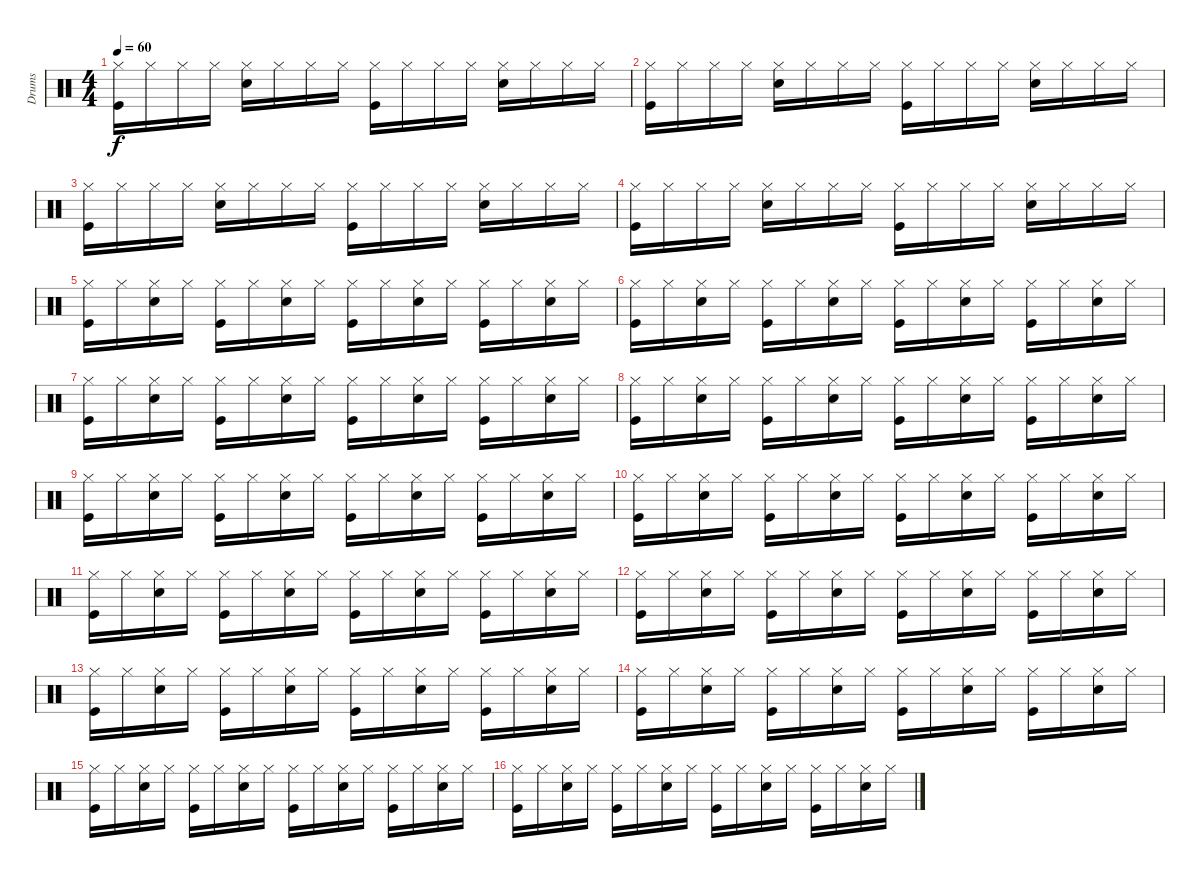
\track ("Drums" "Drums") {instrument percussion}
\staff {score}
\articulation defaults
\ts (4 4)
\tempo 60
\clef neutral
\ks c
("Kick (hit)" "Hi-Hat (closed)").16{dy f} "Hi-Hat (closed)".16 "Hi-Hat (closed)".16 "Hi-Hat (closed)".16 ("Electric Snare (hit)" "Hi-Hat (closed)").16 "Hi-Hat (closed)".16 "Hi-Hat (closed)".16 "Hi-Hat (closed)".16 ("Kick (hit)" "Hi-Hat (closed)").16 "Hi-Hat (closed)".16 "Hi-Hat (closed)".16 "Hi-Hat (closed)".16 ("Electric Snare (hit)" "Hi-Hat (closed)").16 "Hi-Hat (closed)".16 "Hi-Hat (closed)".16 "Hi-Hat (closed)".16 |
("Kick (hit)" "Hi-Hat (closed)").16 "Hi-Hat (closed)".16 "Hi-Hat (closed)".16 "Hi-Hat (closed)".16 ("Electric Snare (hit)" "Hi-Hat (closed)").16 "Hi-Hat (closed)".16 "Hi-Hat (closed)".16 "Hi-Hat (closed)".16 ("Kick (hit)" "Hi-Hat (closed)").16 "Hi-Hat (closed)".16 "Hi-Hat (closed)".16 "Hi-Hat (closed)".16 ("Electric Snare (hit)" "Hi-Hat (closed)").16 "Hi-Hat (closed)".16 "Hi-Hat (closed)".16 "Hi-Hat (closed)".16 |
("Kick (hit)" "Hi-Hat (closed)").16 "Hi-Hat (closed)".16 "Hi-Hat (closed)".16 "Hi-Hat (closed)".16 ("Electric Snare (hit)" "Hi-Hat (closed)").16 "Hi-Hat (closed)".16 "Hi-Hat (closed)".16 "Hi-Hat (closed)".16 ("Kick (hit)" "Hi-Hat (closed)").16 "Hi-Hat (closed)".16 "Hi-Hat (closed)".16 "Hi-Hat (closed)".16 ("Electric Snare (hit)" "Hi-Hat (closed)").16 "Hi-Hat (closed)".16 "Hi-Hat (closed)".16 "Hi-Hat (closed)".16 |
("Kick (hit)" "Hi-Hat (closed)").16 "Hi-Hat (closed)".16 "Hi-Hat (closed)".16 "Hi-Hat (closed)".16 ("Electric Snare (hit)" "Hi-Hat (closed)").16 "Hi-Hat (closed)".16 "Hi-Hat (closed)".16 "Hi-Hat (closed)".16 ("Kick (hit)" "Hi-Hat (closed)").16 "Hi-Hat (closed)".16 "Hi-Hat (closed)".16 "Hi-Hat (closed)".16 ("Electric Snare (hit)" "Hi-Hat (closed)").16 "Hi-Hat (closed)".16 "Hi-Hat (closed)".16 "Hi-Hat (closed)".16 |
("Kick (hit)" "Hi-Hat (closed)").16 "Hi-Hat (closed)".16 ("Electric Snare (hit)" "Hi-Hat (closed)").16 "Hi-Hat (closed)".16 ("Kick (hit)" "Hi-Hat (closed)").16 "Hi-Hat (closed)".16 ("Electric Snare (hit)" "Hi-Hat (closed)").16 "Hi-Hat (closed)".16 ("Kick (hit)" "Hi-Hat (closed)").16 "Hi-Hat (closed)".16 ("Electric Snare (hit)" "Hi-Hat (closed)").16 "Hi-Hat (closed)".16 ("Kick (hit)" "Hi-Hat (closed)").16 "Hi-Hat (closed)".16 ("Electric Snare (hit)" "Hi-Hat (closed)").16 "Hi-Hat (closed)".16 |
("Kick (hit)" "Hi-Hat (closed)").16 "Hi-Hat (closed)".16 ("Electric Snare (hit)" "Hi-Hat (closed)").16 "Hi-Hat (closed)".16 ("Kick (hit)" "Hi-Hat (closed)").16 "Hi-Hat (closed)".16 ("Electric Snare (hit)" "Hi-Hat (closed)").16 "Hi-Hat (closed)".16 ("Kick (hit)" "Hi-Hat (closed)").16 "Hi-Hat (closed)".16 ("Electric Snare (hit)" "Hi-Hat (closed)").16 "Hi-Hat (closed)".16 ("Kick (hit)" "Hi-Hat (closed)").16 "Hi-Hat (closed)".16 ("Electric Snare (hit)" "Hi-Hat (closed)").16 "Hi-Hat (closed)".16 |
("Kick (hit)" "Hi-Hat (closed)").16 "Hi-Hat (closed)".16 ("Electric Snare (hit)" "Hi-Hat (closed)").16 "Hi-Hat (closed)".16 ("Kick (hit)" "Hi-Hat (closed)").16 "Hi-Hat (closed)".16 ("Electric Snare (hit)" "Hi-Hat (closed)").16 "Hi-Hat (closed)".16 ("Kick (hit)" "Hi-Hat (closed)").16 "Hi-Hat (closed)".16 ("Electric Snare (hit)" "Hi-Hat (closed)").16 "Hi-Hat (closed)".16 ("Kick (hit)" "Hi-Hat (closed)").16 "Hi-Hat (closed)".16 ("Electric Snare (hit)" "Hi-Hat (closed)").16 "Hi-Hat (closed)".16 |
("Kick (hit)" "Hi-Hat (closed)").16 "Hi-Hat (closed)".16 ("Electric Snare (hit)" "Hi-Hat (closed)").16 "Hi-Hat (closed)".16 ("Kick (hit)" "Hi-Hat (closed)").16 "Hi-Hat (closed)".16 ("Electric Snare (hit)" "Hi-Hat (closed)").16 "Hi-Hat (closed)".16 ("Kick (hit)" "Hi-Hat (closed)").16 "Hi-Hat (closed)".16 ("Electric Snare (hit)" "Hi-Hat (closed)").16 "Hi-Hat (closed)".16 ("Kick (hit)" "Hi-Hat (closed)").16 "Hi-Hat (closed)".16 ("Electric Snare (hit)" "Hi-Hat (closed)").16 "Hi-Hat (closed)".16 |
("Kick (hit)" "Hi-Hat (closed)").16 "Hi-Hat (closed)".16 ("Electric Snare (hit)" "Hi-Hat (closed)").16 "Hi-Hat (closed)".16 ("Kick (hit)" "Hi-Hat (closed)").16 "Hi-Hat (closed)".16 ("Electric Snare (hit)" "Hi-Hat (closed)").16 "Hi-Hat (closed)".16 ("Kick (hit)" "Hi-Hat (closed)").16 "Hi-Hat (closed)".16 ("Electric Snare (hit)" "Hi-Hat (closed)").16 "Hi-Hat (closed)".16 ("Kick (hit)" "Hi-Hat (closed)").16 "Hi-Hat (closed)".16 ("Electric Snare (hit)" "Hi-Hat (closed)").16 "Hi-Hat (closed)".16 |
("Kick (hit)" "Hi-Hat (closed)").16 "Hi-Hat (closed)".16 ("Electric Snare (hit)" "Hi-Hat (closed)").16 "Hi-Hat (closed)".16 ("Kick (hit)" "Hi-Hat (closed)").16 "Hi-Hat (closed)".16 ("Electric Snare (hit)" "Hi-Hat (closed)").16 "Hi-Hat (closed)".16 ("Kick (hit)" "Hi-Hat (closed)").16 "Hi-Hat (closed)".16 ("Electric Snare (hit)" "Hi-Hat (closed)").16 "Hi-Hat (closed)".16 ("Kick (hit)" "Hi-Hat (closed)").16 "Hi-Hat (closed)".16 ("Electric Snare (hit)" "Hi-Hat (closed)").16 "Hi-Hat (closed)".16 |
("Kick (hit)" "Hi-Hat (closed)").16 "Hi-Hat (closed)".16 ("Electric Snare (hit)" "Hi-Hat (closed)").16 "Hi-Hat (closed)".16 ("Kick (hit)" "Hi-Hat (closed)").16 "Hi-Hat (closed)".16 ("Electric Snare (hit)" "Hi-Hat (closed)").16 "Hi-Hat (closed)".16 ("Kick (hit)" "Hi-Hat (closed)").16 "Hi-Hat (closed)".16 ("Electric Snare (hit)" "Hi-Hat (closed)").16 "Hi-Hat (closed)".16 ("Kick (hit)" "Hi-Hat (closed)").16 "Hi-Hat (closed)".16 ("Electric Snare (hit)" "Hi-Hat (closed)").16 "Hi-Hat (closed)".16 |
("Kick (hit)" "Hi-Hat (closed)").16 "Hi-Hat (closed)".16 ("Electric Snare (hit)" "Hi-Hat (closed)").16 "Hi-Hat (closed)".16 ("Kick (hit)" "Hi-Hat (closed)").16 "Hi-Hat (closed)".16 ("Electric Snare (hit)" "Hi-Hat (closed)").16 "Hi-Hat (closed)".16 ("Kick (hit)" "Hi-Hat (closed)").16 "Hi-Hat (closed)".16 ("Electric Snare (hit)" "Hi-Hat (closed)").16 "Hi-Hat (closed)".16 ("Kick (hit)" "Hi-Hat (closed)").16 "Hi-Hat (closed)".16 ("Electric Snare (hit)" "Hi-Hat (closed)").16 "Hi-Hat (closed)".16 |
("Kick (hit)" "Hi-Hat (closed)").16 "Hi-Hat (closed)".16 ("Electric Snare (hit)" "Hi-Hat (closed)").16 "Hi-Hat (closed)".16 ("Kick (hit)" "Hi-Hat (closed)").16 "Hi-Hat (closed)".16 ("Electric Snare (hit)" "Hi-Hat (closed)").16 "Hi-Hat (closed)".16 ("Kick (hit)" "Hi-Hat (closed)").16 "Hi-Hat (closed)".16 ("Electric Snare (hit)" "Hi-Hat (closed)").16 "Hi-Hat (closed)".16 ("Kick (hit)" "Hi-Hat (closed)").16 "Hi-Hat (closed)".16 ("Electric Snare (hit)" "Hi-Hat (closed)").16 "Hi-Hat (closed)".16 |
("Kick (hit)" "Hi-Hat (closed)").16 "Hi-Hat (closed)".16 ("Electric Snare (hit)" "Hi-Hat (closed)").16 "Hi-Hat (closed)".16 ("Kick (hit)" "Hi-Hat (closed)").16 "Hi-Hat (closed)".16 ("Electric Snare (hit)" "Hi-Hat (closed)").16 "Hi-Hat (closed)".16 ("Kick (hit)" "Hi-Hat (closed)").16 "Hi-Hat (closed)".16 ("Electric Snare (hit)" "Hi-Hat (closed)").16 "Hi-Hat (closed)".16 ("Kick (hit)" "Hi-Hat (closed)").16 "Hi-Hat (closed)".16 ("Electric Snare (hit)" "Hi-Hat (closed)").16 "Hi-Hat (closed)".16 |
("Kick (hit)" "Hi-Hat (closed)").16{volume 0} "Hi-Hat (closed)".16 ("Electric Snare (hit)" "Hi-Hat (closed)").16 "Hi-Hat (closed)".16 ("Kick (hit)" "Hi-Hat (closed)").16 "Hi-Hat (closed)".16 ("Electric Snare (hit)" "Hi-Hat (closed)").16 "Hi-Hat (closed)".16 ("Kick (hit)" "Hi-Hat (closed)").16 "Hi-Hat (closed)".16 ("Electric Snare (hit)" "Hi-Hat (closed)").16 "Hi-Hat (closed)".16 ("Kick (hit)" "Hi-Hat (closed)").16 "Hi-Hat (closed)".16 ("Electric Snare (hit)" "Hi-Hat (closed)").16 "Hi-Hat (closed)".16 |
("Kick (hit)" "Hi-Hat (closed)").16 "Hi-Hat (closed)".16 ("Electric Snare (hit)" "Hi-Hat (closed)").16 "Hi-Hat (closed)".16 ("Kick (hit)" "Hi-Hat (closed)").16 "Hi-Hat (closed)".16 ("Electric Snare (hit)" "Hi-Hat (closed)").16 "Hi-Hat (closed)".16 ("Kick (hit)" "Hi-Hat (closed)").16 "Hi-Hat (closed)".16 ("Electric Snare (hit)" "Hi-Hat (closed)").16 "Hi-Hat (closed)".16 ("Kick (hit)" "Hi-Hat (closed)").16 "Hi-Hat (closed)".16 ("Electric Snare (hit)" "Hi-Hat (closed)").16 "Hi-Hat (closed)".16
